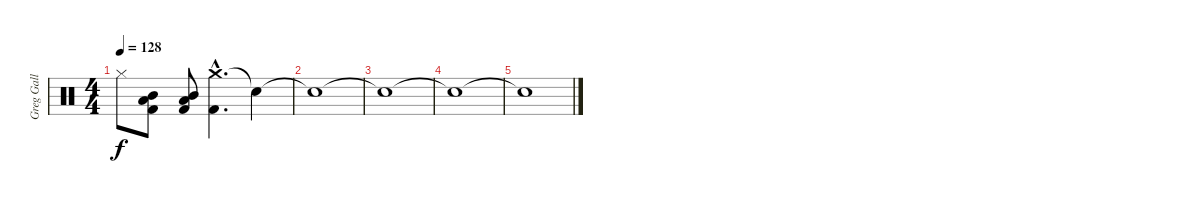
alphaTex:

\track ("Greg Gall" "Greg Gall") {instrument percussion}
\staff {score}
\articulation defaults
\ts (4 4)
\tempo 128
\clef neutral
\ks c "Hi-Hat (closed)".8{dy f}
("Mid Tom (hit)" "Low Tom (hit)" "Kick (hit) 2").8 ("Mid Tom (hit)" "Low Tom (hit)" "Kick (hit) 2").8 ("Crash medium (hit)"{hac} "Kick (hit) 2"{hac}).4{d} "Snare (hit)"{t}.4 |
"Snare (hit)"{t}.1 |
"Snare (hit)"{t}.1 |
"Snare (hit)"{t}.1 |
"Snare (hit)"{t}.1
